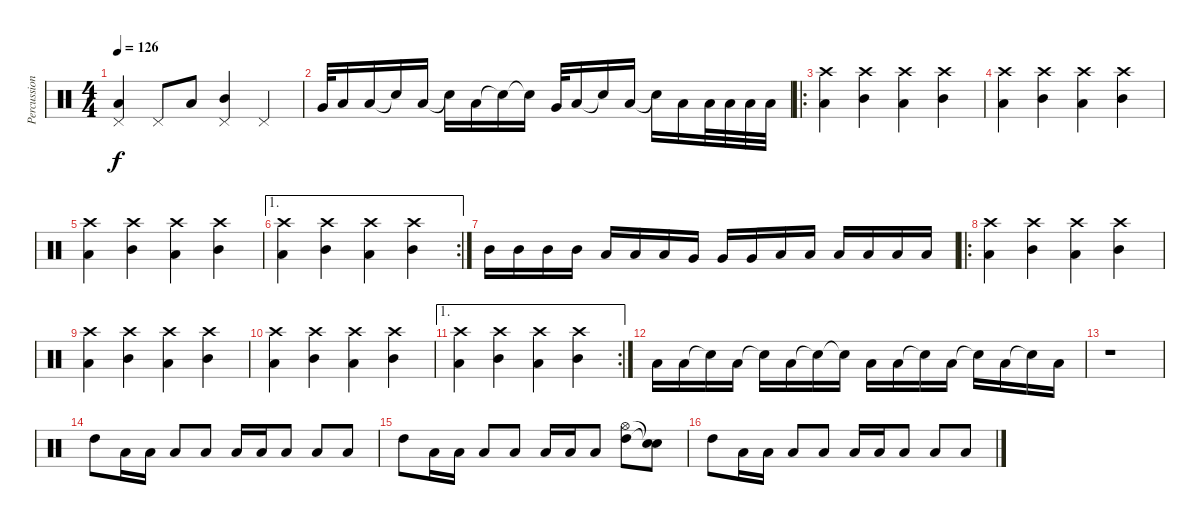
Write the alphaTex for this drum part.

\track ("Percussion" "Percussion") {instrument percussion}
\staff {score}
\articulation defaults
\ts (4 4)
\tempo 126
\clef neutral
\ks c
("Pedal Hi-Hat (hit)" "Low Tom (hit)").4{dy f} "Pedal Hi-Hat (hit)".8 "Low Tom (hit)".8 ("Pedal Hi-Hat (hit)" "Mid Tom (hit)").4 "Pedal Hi-Hat (hit)".4 |
"Very Low Tom (hit)".32 "Low Tom (hit)".16 "Low Tom (hit)".16 "Snare (hit)"{t}.16 "Low Tom (hit)".16 "Snare (hit)"{t}.16 "Low Tom (hit)".16 "Snare (hit)"{t}.16 "Snare (hit)"{t}.16 "Very Low Tom (hit)".32 "Low Tom (hit)".16 "Snare (hit)"{t}.16 "Low Tom (hit)".16 "Snare (hit)"{t}.16 "Low Tom (hit)".16 "Low Tom (hit)".32 "Low Tom (hit)".32 "Low Tom (hit)".32 "Low Tom (hit)".32 |
\ro
("Low Floor Tom (hit)" "Crash high (hit)").4 ("Mid Tom (hit)" "Crash high (hit)").4 ("Low Floor Tom (hit)" "Crash high (hit)").4 ("Mid Tom (hit)" "Crash high (hit)").4 |
("Low Floor Tom (hit)" "Crash high (hit)").4 ("Mid Tom (hit)" "Crash high (hit)").4 ("Low Floor Tom (hit)" "Crash high (hit)").4 ("Mid Tom (hit)" "Crash high (hit)").4 |
("Low Floor Tom (hit)" "Crash high (hit)").4 ("Mid Tom (hit)" "Crash high (hit)").4 ("Low Floor Tom (hit)" "Crash high (hit)").4 ("Mid Tom (hit)" "Crash high (hit)").4 |
\ae 1
\rc 2
("Low Floor Tom (hit)" "Crash high (hit)").4 ("Mid Tom (hit)" "Crash high (hit)").4 ("Low Floor Tom (hit)" "Crash high (hit)").4 ("Mid Tom (hit)" "Crash high (hit)").4 |
"Mid Tom (hit)".16 "Mid Tom (hit)".16 "Mid Tom (hit)".16 "Mid Tom (hit)".16 "Low Tom (hit)".16 "Low Tom (hit)".16 "Low Tom (hit)".16 "Very Low Tom (hit)".16 "Very Low Tom (hit)".16 "Very Low Tom (hit)".16 "Low Floor Tom (hit)".16 "Low Floor Tom (hit)".16 "Low Floor Tom (hit)".16 "Low Floor Tom (hit)".16 "Low Floor Tom (hit)".16 "Low Floor Tom (hit)".16 |
\ro
("Low Floor Tom (hit)" "Crash high (hit)").4 ("Mid Tom (hit)" "Crash high (hit)").4 ("Low Floor Tom (hit)" "Crash high (hit)").4 ("Mid Tom (hit)" "Crash high (hit)").4 |
("Low Floor Tom (hit)" "Crash high (hit)").4 ("Mid Tom (hit)" "Crash high (hit)").4 ("Low Floor Tom (hit)" "Crash high (hit)").4 ("Mid Tom (hit)" "Crash high (hit)").4 |
("Low Floor Tom (hit)" "Crash high (hit)").4 ("Mid Tom (hit)" "Crash high (hit)").4 ("Low Floor Tom (hit)" "Crash high (hit)").4 ("Mid Tom (hit)" "Crash high (hit)").4 |
\ae 1
\rc 2
("Low Floor Tom (hit)" "Crash high (hit)").4 ("Mid Tom (hit)" "Crash high (hit)").4 ("Low Floor Tom (hit)" "Crash high (hit)").4 ("Mid Tom (hit)" "Crash high (hit)").4 |
"Low Tom (hit)".16 "Low Tom (hit)".16 "Snare (hit)"{t}.16 "Low Tom (hit)".16 "Snare (hit)"{t}.16 "Low Tom (hit)".16 "Snare (hit)"{t}.16 "Snare (hit)"{t}.16 "Low Tom (hit)".16 "Low Tom (hit)".16 "Snare (hit)"{t}.16 "Low Tom (hit)".16 "Snare (hit)"{t}.16 "Low Tom (hit)".16 "Snare (hit)"{t}.16 "Low Tom (hit)".16 |
r.1 |
"High Tom (hit)".8 "Low Tom (hit)".16 "Low Tom (hit)".16 "Low Tom (hit)".8 "Low Tom (hit)".8 "Low Tom (hit)".16 "Low Tom (hit)".16 "Low Tom (hit)".8 "Low Tom (hit)".8 "Low Tom (hit)".8 |
"High Tom (hit)".8 "Low Tom (hit)".16 "Low Tom (hit)".16 "Low Tom (hit)".8 "Low Tom (hit)".8 "Low Tom (hit)".16 "Low Tom (hit)".16 "Low Tom (hit)".8 ("High Tom (hit)" "Hi-Hat (open)").8 ("Snare (hit)"{t} "Snare (hit)"{t}).8 |
"High Tom (hit)".8 "Low Tom (hit)".16 "Low Tom (hit)".16 "Low Tom (hit)".8 "Low Tom (hit)".8 "Low Tom (hit)".16 "Low Tom (hit)".16 "Low Tom (hit)".8 "Low Tom (hit)".8 "Low Tom (hit)".8
